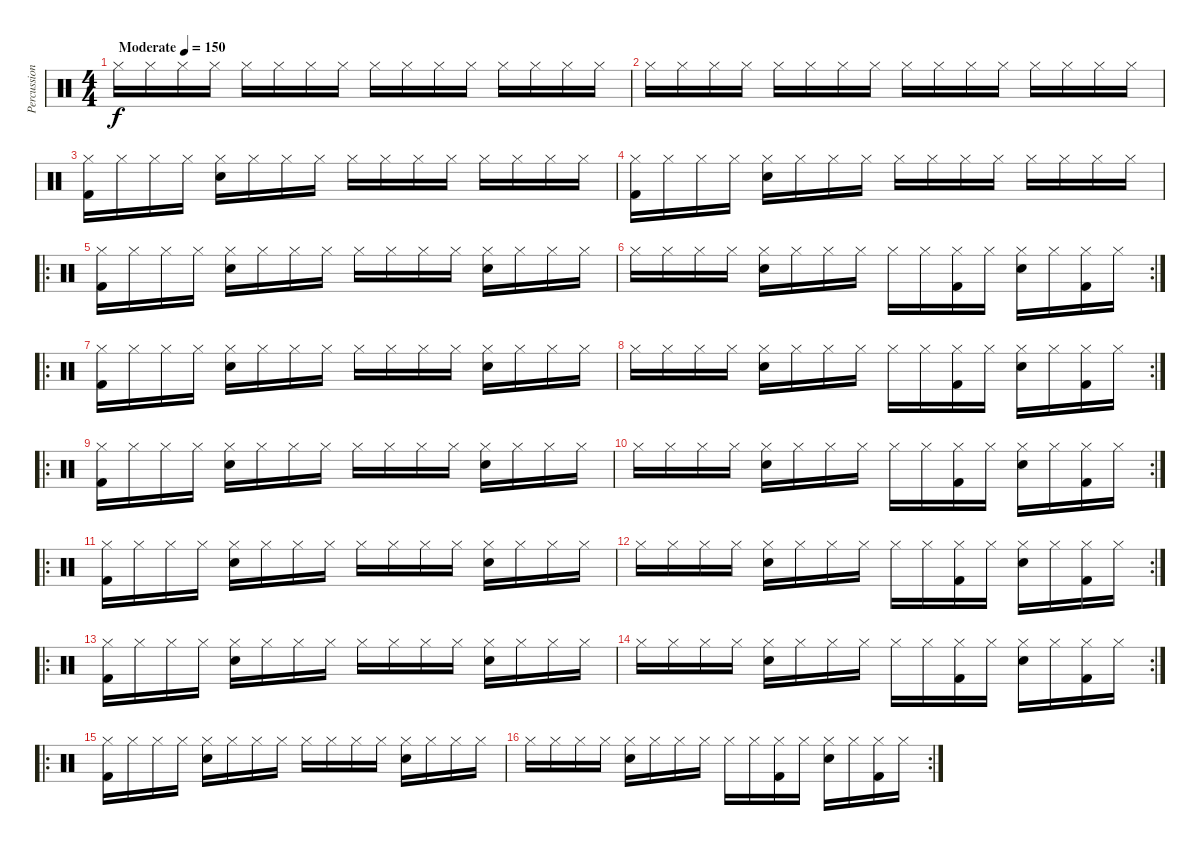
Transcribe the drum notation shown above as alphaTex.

\track ("Percussion" "Percussion") {instrument percussion}
\staff {score}
\articulation defaults
\ts (4 4)
\tempo (150 "Moderate")
\clef neutral
\ks c "Hi-Hat (closed)".16{dy f} "Hi-Hat (closed)".16 "Hi-Hat (closed)".16 "Hi-Hat (closed)".16 "Hi-Hat (closed)".16 "Hi-Hat (closed)".16 "Hi-Hat (closed)".16 "Hi-Hat (closed)".16 "Hi-Hat (closed)".16 "Hi-Hat (closed)".16 "Hi-Hat (closed)".16 "Hi-Hat (closed)".16 "Hi-Hat (closed)".16 "Hi-Hat (closed)".16 "Hi-Hat (closed)".16 "Hi-Hat (closed)".16
|
"Hi-Hat (closed)".16 "Hi-Hat (closed)".16 "Hi-Hat (closed)".16 "Hi-Hat (closed)".16 "Hi-Hat (closed)".16 "Hi-Hat (closed)".16 "Hi-Hat (closed)".16 "Hi-Hat (closed)".16 "Hi-Hat (closed)".16 "Hi-Hat (closed)".16 "Hi-Hat (closed)".16 "Hi-Hat (closed)".16 "Hi-Hat (closed)".16 "Hi-Hat (closed)".16 "Hi-Hat (closed)".16 "Hi-Hat (closed)".16 |
("Hi-Hat (closed)" "Kick (hit) 2").16 "Hi-Hat (closed)".16 "Hi-Hat (closed)".16 "Hi-Hat (closed)".16 ("Hi-Hat (closed)" "Snare (hit) 2").16 "Hi-Hat (closed)".16 "Hi-Hat (closed)".16 "Hi-Hat (closed)".16 "Hi-Hat (closed)".16 "Hi-Hat (closed)".16 "Hi-Hat (closed)".16 "Hi-Hat (closed)".16 "Hi-Hat (closed)".16 "Hi-Hat (closed)".16 "Hi-Hat (closed)".16 "Hi-Hat (closed)".16 |
("Hi-Hat (closed)" "Kick (hit) 2").16 "Hi-Hat (closed)".16 "Hi-Hat (closed)".16 "Hi-Hat (closed)".16 ("Hi-Hat (closed)" "Snare (hit) 2").16 "Hi-Hat (closed)".16 "Hi-Hat (closed)".16 "Hi-Hat (closed)".16 "Hi-Hat (closed)".16 "Hi-Hat (closed)".16 "Hi-Hat (closed)".16 "Hi-Hat (closed)".16 "Hi-Hat (closed)".16 "Hi-Hat (closed)".16 "Hi-Hat (closed)".16 "Hi-Hat (closed)".16 |
\ro
("Hi-Hat (closed)" "Kick (hit) 2").16 "Hi-Hat (closed)".16 "Hi-Hat (closed)".16 "Hi-Hat (closed)".16 ("Hi-Hat (closed)" "Snare (hit) 2").16 "Hi-Hat (closed)".16 "Hi-Hat (closed)".16 "Hi-Hat (closed)".16 "Hi-Hat (closed)".16 "Hi-Hat (closed)".16 "Hi-Hat (closed)".16 "Hi-Hat (closed)".16 ("Hi-Hat (closed)" "Snare (hit) 2").16 "Hi-Hat (closed)".16 "Hi-Hat (closed)".16 "Hi-Hat (closed)".16 |
\rc 2 "Hi-Hat (closed)".16 "Hi-Hat (closed)".16 "Hi-Hat (closed)".16 "Hi-Hat (closed)".16
("Hi-Hat (closed)" "Snare (hit) 2").16 "Hi-Hat (closed)".16 "Hi-Hat (closed)".16 "Hi-Hat (closed)".16 "Hi-Hat (closed)".16 "Hi-Hat (closed)".16 ("Hi-Hat (closed)" "Kick (hit) 2").16 "Hi-Hat (closed)".16 ("Hi-Hat (closed)" "Snare (hit) 2").16 "Hi-Hat (closed)".16 ("Hi-Hat (closed)" "Kick (hit) 2").16 "Hi-Hat (closed)".16 |
\ro
("Hi-Hat (closed)" "Kick (hit) 2").16 "Hi-Hat (closed)".16 "Hi-Hat (closed)".16 "Hi-Hat (closed)".16 ("Hi-Hat (closed)" "Snare (hit) 2").16 "Hi-Hat (closed)".16 "Hi-Hat (closed)".16 "Hi-Hat (closed)".16 "Hi-Hat (closed)".16 "Hi-Hat (closed)".16 "Hi-Hat (closed)".16 "Hi-Hat (closed)".16 ("Hi-Hat (closed)" "Snare (hit) 2").16 "Hi-Hat (closed)".16 "Hi-Hat (closed)".16 "Hi-Hat (closed)".16 |
\rc 2 "Hi-Hat (closed)".16 "Hi-Hat (closed)".16 "Hi-Hat (closed)".16 "Hi-Hat (closed)".16
("Hi-Hat (closed)" "Snare (hit) 2").16 "Hi-Hat (closed)".16 "Hi-Hat (closed)".16 "Hi-Hat (closed)".16 "Hi-Hat (closed)".16 "Hi-Hat (closed)".16 ("Hi-Hat (closed)" "Kick (hit) 2").16 "Hi-Hat (closed)".16 ("Hi-Hat (closed)" "Snare (hit) 2").16 "Hi-Hat (closed)".16 ("Hi-Hat (closed)" "Kick (hit) 2").16 "Hi-Hat (closed)".16 |
\ro
("Hi-Hat (closed)" "Kick (hit) 2").16 "Hi-Hat (closed)".16 "Hi-Hat (closed)".16 "Hi-Hat (closed)".16 ("Hi-Hat (closed)" "Snare (hit) 2").16 "Hi-Hat (closed)".16 "Hi-Hat (closed)".16 "Hi-Hat (closed)".16 "Hi-Hat (closed)".16 "Hi-Hat (closed)".16 "Hi-Hat (closed)".16 "Hi-Hat (closed)".16 ("Hi-Hat (closed)" "Snare (hit) 2").16 "Hi-Hat (closed)".16 "Hi-Hat (closed)".16 "Hi-Hat (closed)".16 |
\rc 2 "Hi-Hat (closed)".16 "Hi-Hat (closed)".16 "Hi-Hat (closed)".16 "Hi-Hat (closed)".16
("Hi-Hat (closed)" "Snare (hit) 2").16 "Hi-Hat (closed)".16 "Hi-Hat (closed)".16 "Hi-Hat (closed)".16 "Hi-Hat (closed)".16 "Hi-Hat (closed)".16 ("Hi-Hat (closed)" "Kick (hit) 2").16 "Hi-Hat (closed)".16 ("Hi-Hat (closed)" "Snare (hit) 2").16 "Hi-Hat (closed)".16 ("Hi-Hat (closed)" "Kick (hit) 2").16 "Hi-Hat (closed)".16 |
\ro
("Hi-Hat (closed)" "Kick (hit) 2").16 "Hi-Hat (closed)".16 "Hi-Hat (closed)".16 "Hi-Hat (closed)".16 ("Hi-Hat (closed)" "Snare (hit) 2").16 "Hi-Hat (closed)".16 "Hi-Hat (closed)".16 "Hi-Hat (closed)".16 "Hi-Hat (closed)".16 "Hi-Hat (closed)".16 "Hi-Hat (closed)".16 "Hi-Hat (closed)".16 ("Hi-Hat (closed)" "Snare (hit) 2").16 "Hi-Hat (closed)".16 "Hi-Hat (closed)".16 "Hi-Hat (closed)".16 |
\rc 2 "Hi-Hat (closed)".16 "Hi-Hat (closed)".16 "Hi-Hat (closed)".16 "Hi-Hat (closed)".16
("Hi-Hat (closed)" "Snare (hit) 2").16 "Hi-Hat (closed)".16 "Hi-Hat (closed)".16 "Hi-Hat (closed)".16 "Hi-Hat (closed)".16 "Hi-Hat (closed)".16 ("Hi-Hat (closed)" "Kick (hit) 2").16 "Hi-Hat (closed)".16 ("Hi-Hat (closed)" "Snare (hit) 2").16 "Hi-Hat (closed)".16 ("Hi-Hat (closed)" "Kick (hit) 2").16 "Hi-Hat (closed)".16 |
\ro
("Hi-Hat (closed)" "Kick (hit) 2").16 "Hi-Hat (closed)".16 "Hi-Hat (closed)".16 "Hi-Hat (closed)".16 ("Hi-Hat (closed)" "Snare (hit) 2").16 "Hi-Hat (closed)".16 "Hi-Hat (closed)".16 "Hi-Hat (closed)".16 "Hi-Hat (closed)".16 "Hi-Hat (closed)".16 "Hi-Hat (closed)".16 "Hi-Hat (closed)".16 ("Hi-Hat (closed)" "Snare (hit) 2").16 "Hi-Hat (closed)".16 "Hi-Hat (closed)".16 "Hi-Hat (closed)".16 |
\rc 2 "Hi-Hat (closed)".16 "Hi-Hat (closed)".16 "Hi-Hat (closed)".16 "Hi-Hat (closed)".16
("Hi-Hat (closed)" "Snare (hit) 2").16 "Hi-Hat (closed)".16 "Hi-Hat (closed)".16 "Hi-Hat (closed)".16 "Hi-Hat (closed)".16 "Hi-Hat (closed)".16 ("Hi-Hat (closed)" "Kick (hit) 2").16 "Hi-Hat (closed)".16 ("Hi-Hat (closed)" "Snare (hit) 2").16 "Hi-Hat (closed)".16 ("Hi-Hat (closed)" "Kick (hit) 2").16 "Hi-Hat (closed)".16 |
\ro
("Hi-Hat (closed)" "Kick (hit) 2").16 "Hi-Hat (closed)".16 "Hi-Hat (closed)".16 "Hi-Hat (closed)".16 ("Hi-Hat (closed)" "Snare (hit) 2").16 "Hi-Hat (closed)".16 "Hi-Hat (closed)".16 "Hi-Hat (closed)".16 "Hi-Hat (closed)".16 "Hi-Hat (closed)".16 "Hi-Hat (closed)".16 "Hi-Hat (closed)".16 ("Hi-Hat (closed)" "Snare (hit) 2").16 "Hi-Hat (closed)".16 "Hi-Hat (closed)".16 "Hi-Hat (closed)".16 |
\rc 2 "Hi-Hat (closed)".16 "Hi-Hat (closed)".16 "Hi-Hat (closed)".16 "Hi-Hat (closed)".16
("Hi-Hat (closed)" "Snare (hit) 2").16 "Hi-Hat (closed)".16 "Hi-Hat (closed)".16 "Hi-Hat (closed)".16 "Hi-Hat (closed)".16 "Hi-Hat (closed)".16 ("Hi-Hat (closed)" "Kick (hit) 2").16 "Hi-Hat (closed)".16 ("Hi-Hat (closed)" "Snare (hit) 2").16 "Hi-Hat (closed)".16 ("Hi-Hat (closed)" "Kick (hit) 2").16 "Hi-Hat (closed)".16
